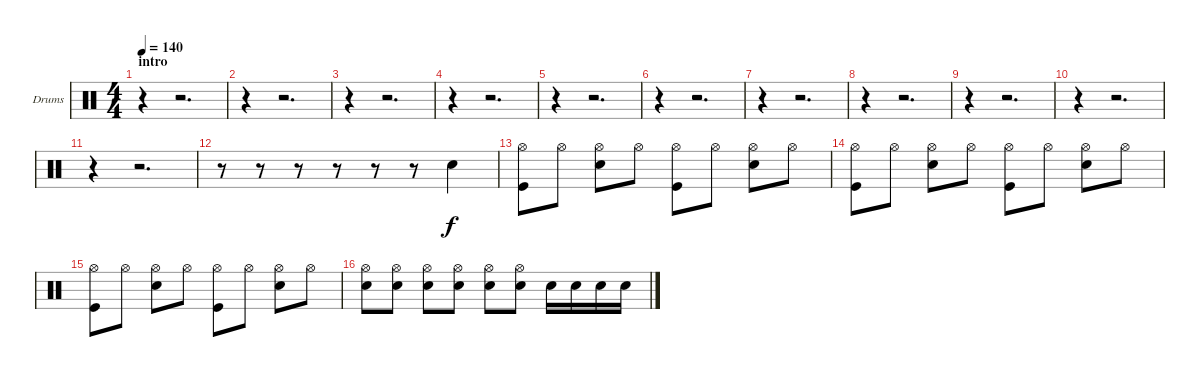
\bracketExtendMode groupsimilarinstruments
\firstSystemTrackNameOrientation horizontal
\otherSystemsTrackNameOrientation horizontal
\track ("Drumkit" "Drums") {instrument percussion}
\staff {score}
\articulation defaults
\ts (4 4)
\section ("" "intro")
\tempo 140
\clef neutral
\scale
0.474178
\ks c
r.4{dy f} r.2{d} |
\scale
0.262911 r.4 r.2{d} |
\scale
0.262911 r.4 r.2{d} |
\scale
0.333333 r.4 r.2{d} |
\scale
0.333333 r.4 r.2{d} |
\scale
0.333333 r.4 r.2{d} |
\scale
0.333333 r.4 r.2{d} |
\scale
0.333333 r.4 r.2{d} |
\scale
0.333333 r.4 r.2{d} |
\scale
0.333333 r.4 r.2{d} |
\scale
0.333333 r.4 r.2{d} |
\scale
0.333333 r.8 r.8 r.8 r.8 r.8 r.8 "Snare (hit) 2".4 |
\scale
0.333333 ("Hi-Hat (open)" "Kick (hit)").8 "Hi-Hat (open)".8 ("Hi-Hat (open)" "Snare (hit) 2").8 "Hi-Hat (open)".8 ("Hi-Hat (open)" "Kick (hit)").8 "Hi-Hat (open)".8 ("Hi-Hat (open)" "Snare (hit) 2").8 "Hi-Hat (open)".8 |
\scale
0.333333 ("Hi-Hat (open)" "Kick (hit)").8 "Hi-Hat (open)".8 ("Hi-Hat (open)" "Snare (hit) 2").8 "Hi-Hat (open)".8 ("Hi-Hat (open)" "Kick (hit)").8 "Hi-Hat (open)".8 ("Hi-Hat (open)" "Snare (hit) 2").8 "Hi-Hat (open)".8 |
\scale
0.333333 ("Hi-Hat (open)" "Kick (hit)").8 "Hi-Hat (open)".8 ("Hi-Hat (open)" "Snare (hit) 2").8 "Hi-Hat (open)".8 ("Hi-Hat (open)" "Kick (hit)").8 "Hi-Hat (open)".8 ("Hi-Hat (open)" "Snare (hit) 2").8 "Hi-Hat (open)".8 |
\scale
0.333333 ("Hi-Hat (open)" "Snare (hit) 2").8 ("Hi-Hat (open)" "Snare (hit) 2").8 ("Hi-Hat (open)" "Snare (hit) 2").8 ("Hi-Hat (open)" "Snare (hit) 2").8 ("Hi-Hat (open)" "Snare (hit) 2").8 ("Hi-Hat (open)" "Snare (hit) 2").8 "Snare (hit) 2".16 "Snare (hit) 2".16 "Snare (hit) 2".16 "Snare (hit) 2".16
